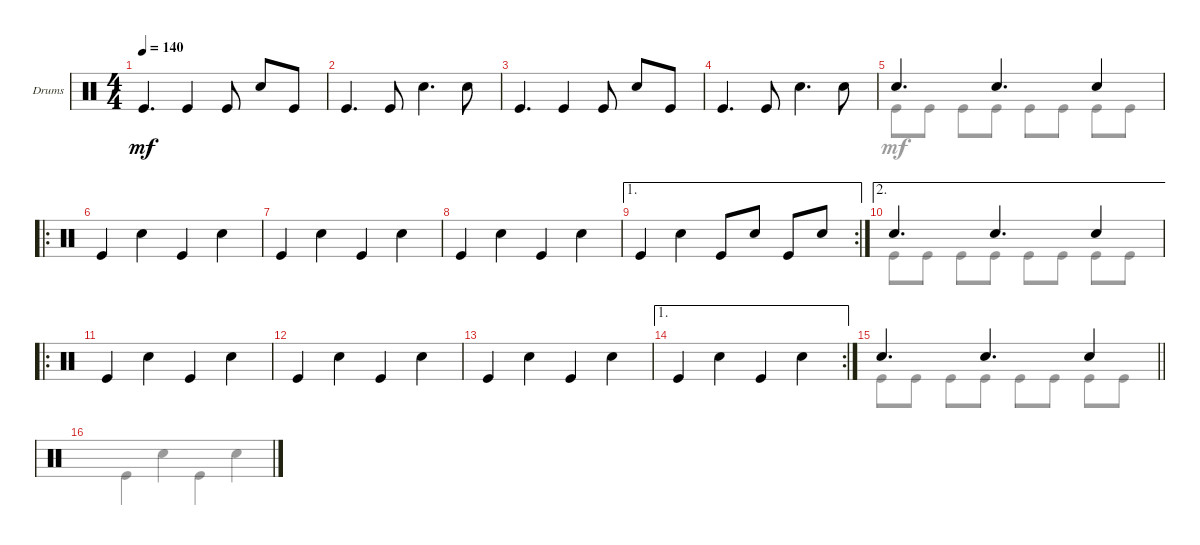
\defaultSystemsLayout 4
\bracketExtendMode groupsimilarinstruments
\firstSystemTrackNameOrientation horizontal
\otherSystemsTrackNameOrientation horizontal
\track ("Drumkit" "Drums") {instrument percussion}
\staff {score}
\articulation defaults
\voice
\ts (4 4)
\tempo 140
\clef neutral
\ks c "Kick (hit)".4{d dy mf} "Kick (hit)".4 "Kick (hit)".8 "Snare (hit) 2".8 "Kick (hit)".8
|
"Kick (hit)".4{d} "Kick (hit)".8 "Snare (hit) 2".4{d} "Snare (hit) 2".8 |
"Kick (hit)".4{d} "Kick (hit)".4 "Kick (hit)".8 "Snare (hit) 2".8 "Kick (hit)".8 |
"Kick (hit)".4{d} "Kick (hit)".8 "Snare (hit) 2".4{d} "Snare (hit) 2".8 |
\scale
0.5 "Snare (hit) 2".4{d} "Snare (hit) 2".4{d} "Snare (hit) 2".4 |
\ro
\scale
0.547619 "Kick (hit)".4 "Snare (hit) 2".4 "Kick (hit)".4 "Snare (hit) 2".4 |
\scale
0.452381 "Kick (hit)".4 "Snare (hit) 2".4 "Kick (hit)".4 "Snare (hit) 2".4 |
\scale
0.475 "Kick (hit)".4 "Snare (hit) 2".4 "Kick (hit)".4 "Snare (hit) 2".4 |
\ae 1
\rc 2
\scale
0.525 "Kick (hit)".4 "Snare (hit) 2".4 "Kick (hit)".8 "Snare (hit) 2".8 "Kick (hit)".8 "Snare (hit) 2".8 |
\ae 2
\scale
0.5 "Snare (hit) 2".4{d} "Snare (hit) 2".4{d} "Snare (hit) 2".4 |
\ro "Kick (hit)".4 "Snare (hit) 2".4 "Kick (hit)".4 "Snare (hit) 2".4
|
"Kick (hit)".4 "Snare (hit) 2".4 "Kick (hit)".4 "Snare (hit) 2".4 |
"Kick (hit)".4 "Snare (hit) 2".4 "Kick (hit)".4 "Snare (hit) 2".4 |
\ae 1
\rc 2 "Kick (hit)".4 "Snare (hit) 2".4 "Kick (hit)".4 "Snare (hit) 2".4
|
\barLineRight lightlight "Snare (hit) 2".4{d} "Snare (hit) 2".4{d} "Snare (hit) 2".4
|
\scale
0.5
\voice
\clef neutral
\ottava regular
\simile none
\ks c
|
|
|
|
\scale
0.5 "Kick (hit)".8 "Kick (hit)".8 "Kick (hit)".8 "Kick (hit)".8 "Kick (hit)".8 "Kick (hit)".8 "Kick (hit)".8 "Kick (hit)".8 |
\scale
0.547619 |
\scale
0.452381 |
\scale
0.475 |
\scale
0.525 |
\scale
0.5 "Kick (hit)".8 "Kick (hit)".8 "Kick (hit)".8 "Kick (hit)".8 "Kick (hit)".8 "Kick (hit)".8 "Kick (hit)".8 "Kick (hit)".8 |
|
|
|
|
\barLineRight lightlight "Kick (hit)".8 "Kick (hit)".8 "Kick (hit)".8 "Kick (hit)".8 "Kick (hit)".8 "Kick (hit)".8 "Kick (hit)".8 "Kick (hit)".8
|
\scale
0.5 "Kick (hit)".4 "Snare (hit) 2".4 "Kick (hit)".4 "Snare (hit) 2".4
